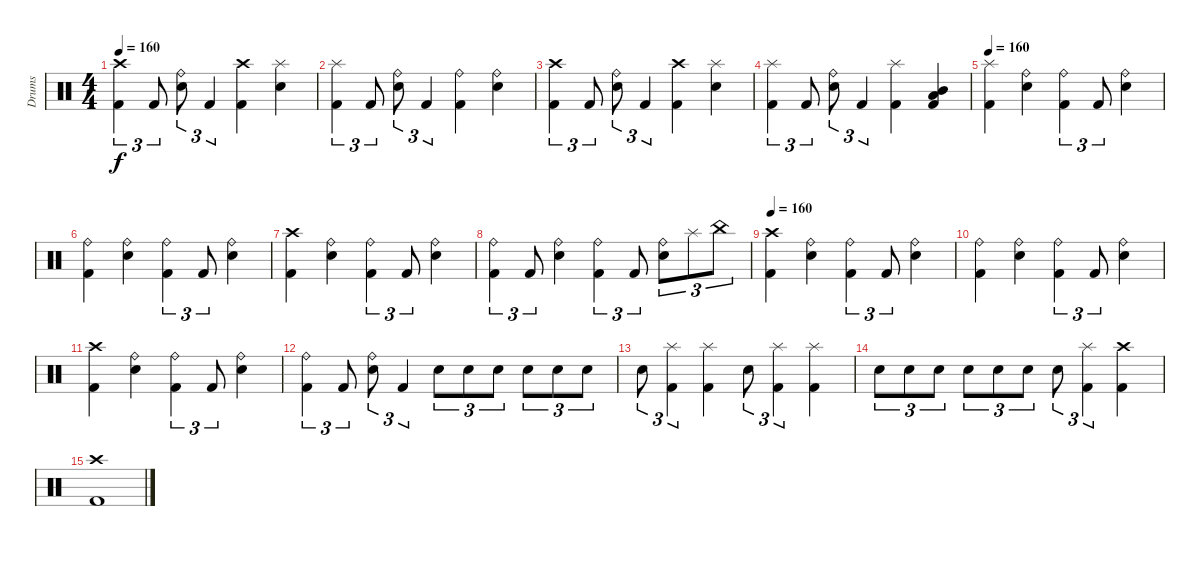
\track ("Drums" "Drums") {instrument percussion}
\staff {score}
\articulation defaults
\ts (4 4)
\tempo 160
\clef neutral
\ks c
("Crash high (hit)" "Kick (hit) 2").4{tu (3 2) dy f} "Kick (hit) 2".8{tu (3 2)} ("Ride (bell)" "Snare (hit) 2").8{tu (3 2)} "Kick (hit) 2".4{tu (3 2)} ("Crash high (hit)" "Kick (hit) 2").4 ("Splash (hit)" "Snare (hit) 2").4 |
("Splash (hit)" "Kick (hit) 2").4{tu (3 2)} "Kick (hit) 2".8{tu (3 2)} ("Ride (bell)" "Snare (hit) 2").8{tu (3 2)} "Kick (hit) 2".4{tu (3 2)} ("Ride (bell)" "Kick (hit) 2").4 ("Ride (bell)" "Snare (hit) 2").4 |
("Crash high (hit)" "Kick (hit) 2").4{tu (3 2)} "Kick (hit) 2".8{tu (3 2)} ("Ride (bell)" "Snare (hit) 2").8{tu (3 2)} "Kick (hit) 2".4{tu (3 2)} ("Crash high (hit)" "Kick (hit) 2").4 ("Splash (hit)" "Snare (hit) 2").4 |
("Splash (hit)" "Kick (hit) 2").4{tu (3 2)} "Kick (hit) 2".8{tu (3 2)} ("Ride (bell)" "Snare (hit) 2").8{tu (3 2)} "Kick (hit) 2".4{tu (3 2)} ("Splash (hit)" "Kick (hit) 2").4 ("Mid Tom (hit)" "Low Tom (hit)" "Kick (hit) 2").4 |
\tempo 160
("Splash (hit)" "Kick (hit) 2").4 ("Ride (bell)" "Snare (hit) 2").4 ("Ride (bell)" "Kick (hit) 2").4{tu (3 2)} "Kick (hit) 2".8{tu (3 2)} ("Ride (bell)" "Snare (hit) 2").4 |
("Ride (bell)" "Kick (hit) 2").4 ("Ride (bell)" "Snare (hit) 2").4 ("Ride (bell)" "Kick (hit) 2").4{tu (3 2)} "Kick (hit) 2".8{tu (3 2)} ("Ride (bell)" "Snare (hit) 2").4 |
("Crash high (hit)" "Kick (hit) 2").4 ("Ride (bell)" "Snare (hit) 2").4 ("Ride (bell)" "Kick (hit) 2").4{tu (3 2)} "Kick (hit) 2".8{tu (3 2)} ("Ride (bell)" "Snare (hit) 2").4 |
("Ride (bell)" "Kick (hit) 2").4{tu (3 2)} "Kick (hit) 2".8{tu (3 2)} ("Ride (bell)" "Snare (hit) 2").4 ("Ride (bell)" "Kick (hit) 2").4{tu (3 2)} "Kick (hit) 2".8{tu (3 2)} ("Ride (bell)" "Snare (hit) 2").8{tu (3 2)} "Splash (hit)".8{tu (3 2)} "China (hit)".8{tu (3 2)} |
\tempo 160
("Crash high (hit)" "Kick (hit) 2").4 ("Ride (bell)" "Snare (hit) 2").4 ("Ride (bell)" "Kick (hit) 2").4{tu (3 2)} "Kick (hit) 2".8{tu (3 2)} ("Ride (bell)" "Snare (hit) 2").4 |
("Ride (bell)" "Kick (hit) 2").4 ("Ride (bell)" "Snare (hit) 2").4 ("Ride (bell)" "Kick (hit) 2").4{tu (3 2)} "Kick (hit) 2".8{tu (3 2)} ("Ride (bell)" "Snare (hit) 2").4 |
("Crash high (hit)" "Kick (hit) 2").4 ("Ride (bell)" "Snare (hit) 2").4 ("Ride (bell)" "Kick (hit) 2").4{tu (3 2)} "Kick (hit) 2".8{tu (3 2)} ("Ride (bell)" "Snare (hit) 2").4 |
("Ride (bell)" "Kick (hit) 2").4{tu (3 2)} "Kick (hit) 2".8{tu (3 2)} ("Ride (bell)" "Snare (hit) 2").8{tu (3 2)} "Kick (hit) 2".4{tu (3 2)} "Snare (hit) 2".8{tu (3 2)} "Snare (hit) 2".8{tu (3 2)} "Snare (hit) 2".8{tu (3 2)} "Snare (hit) 2".8{tu (3 2)} "Snare (hit) 2".8{tu (3 2)} "Snare (hit) 2".8{tu (3 2)} |
"Snare (hit) 2".8{tu (3 2)} ("Splash (hit)" "Kick (hit) 2").4{tu (3 2)} ("Splash (hit)" "Kick (hit) 2").4 "Snare (hit) 2".8{tu (3 2)} ("Splash (hit)" "Kick (hit) 2").4{tu (3 2)} ("Splash (hit)" "Kick (hit) 2").4 |
"Snare (hit) 2".8{tu (3 2)} "Snare (hit) 2".8{tu (3 2)} "Snare (hit) 2".8{tu (3 2)} "Snare (hit) 2".8{tu (3 2)} "Snare (hit) 2".8{tu (3 2)} "Snare (hit) 2".8{tu (3 2)} "Snare (hit) 2".8{tu (3 2)} ("Splash (hit)" "Kick (hit) 2").4{tu (3 2)} ("Crash high (hit)" "Kick (hit) 2").4 |
("Crash high (hit)" "Kick (hit) 2").1
